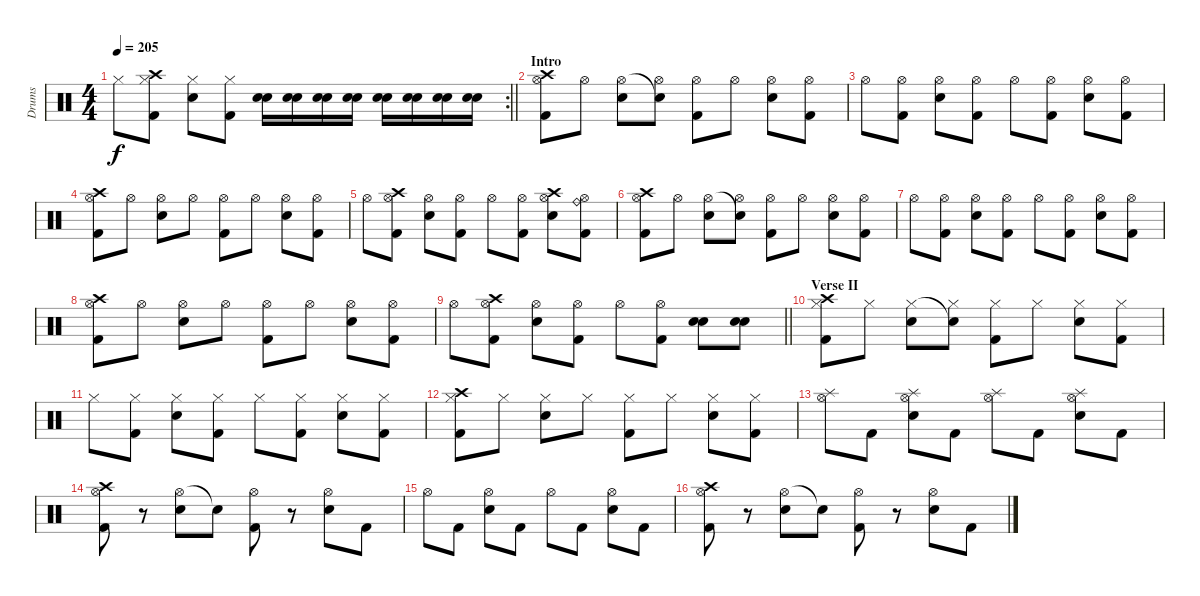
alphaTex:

\track ("Drums" "Drums") {instrument percussion}
\staff {score}
\articulation defaults
\rc 2
\ts (4 4)
\tempo 205
\clef neutral
\barLineRight lightlight
\ks c "Hi-Hat (closed)".8{dy f}
("Crash high (hit)" "Hi-Hat (closed)" "Kick (hit) 2").8 ("Hi-Hat (closed)" "Electric Snare (hit)").8 ("Hi-Hat (closed)" "Kick (hit) 2").8 ("Electric Snare (hit)" "Electric Snare (hit)").16 ("Electric Snare (hit)" "Electric Snare (hit)").16 ("Electric Snare (hit)" "Electric Snare (hit)").16 ("Electric Snare (hit)" "Electric Snare (hit)").16 ("Electric Snare (hit)" "Electric Snare (hit)").16 ("Electric Snare (hit)" "Electric Snare (hit)").16 ("Electric Snare (hit)" "Electric Snare (hit)").16 ("Electric Snare (hit)" "Electric Snare (hit)").16 |
\section ("" "Intro")
("Crash high (hit)" "Hi-Hat (open)" "Kick (hit) 2").8 "Hi-Hat (open)".8 ("Hi-Hat (open)" "Electric Snare (hit)").8 ("Snare (hit)"{t} "Hi-Hat (open)").8 ("Hi-Hat (open)" "Kick (hit) 2").8 "Hi-Hat (open)".8 ("Hi-Hat (open)" "Electric Snare (hit)").8 ("Hi-Hat (open)" "Kick (hit) 2").8 |
"Hi-Hat (open)".8 ("Hi-Hat (open)" "Kick (hit) 2").8 ("Hi-Hat (open)" "Electric Snare (hit)").8 ("Hi-Hat (open)" "Kick (hit) 2").8 "Hi-Hat (open)".8 ("Hi-Hat (open)" "Kick (hit) 2").8 ("Hi-Hat (open)" "Electric Snare (hit)").8 ("Hi-Hat (open)" "Kick (hit) 2").8 |
("Crash high (hit)" "Hi-Hat (open)" "Kick (hit) 2").8 "Hi-Hat (open)".8 ("Hi-Hat (open)" "Electric Snare (hit)").8 "Hi-Hat (open)".8 ("Hi-Hat (open)" "Kick (hit) 2").8 "Hi-Hat (open)".8 ("Hi-Hat (open)" "Electric Snare (hit)").8 ("Hi-Hat (open)" "Kick (hit) 2").8 |
"Hi-Hat (open)".8 ("Crash high (hit)" "Hi-Hat (open)" "Kick (hit) 2").8 ("Hi-Hat (open)" "Electric Snare (hit)").8 ("Hi-Hat (open)" "Kick (hit) 2").8 "Hi-Hat (open)".8 ("Hi-Hat (open)" "Kick (hit) 2").8 ("Crash high (hit)" "Hi-Hat (open)" "Electric Snare (hit)").8 ("Ride (bell)" "Hi-Hat (open)" "Kick (hit) 2").8 |
("Crash high (hit)" "Hi-Hat (open)" "Kick (hit) 2").8 "Hi-Hat (open)".8 ("Hi-Hat (open)" "Electric Snare (hit)").8 ("Snare (hit)"{t} "Hi-Hat (open)").8 ("Hi-Hat (open)" "Kick (hit) 2").8 "Hi-Hat (open)".8 ("Hi-Hat (open)" "Electric Snare (hit)").8 ("Hi-Hat (open)" "Kick (hit) 2").8 |
"Hi-Hat (open)".8 ("Hi-Hat (open)" "Kick (hit) 2").8 ("Hi-Hat (open)" "Electric Snare (hit)").8 ("Hi-Hat (open)" "Kick (hit) 2").8 "Hi-Hat (open)".8 ("Hi-Hat (open)" "Kick (hit) 2").8 ("Hi-Hat (open)" "Electric Snare (hit)").8 ("Hi-Hat (open)" "Kick (hit) 2").8 |
("Crash high (hit)" "Hi-Hat (open)" "Kick (hit) 2").8 "Hi-Hat (open)".8 ("Hi-Hat (open)" "Electric Snare (hit)").8 "Hi-Hat (open)".8 ("Hi-Hat (open)" "Kick (hit) 2").8 "Hi-Hat (open)".8 ("Hi-Hat (open)" "Electric Snare (hit)").8 ("Hi-Hat (open)" "Kick (hit) 2").8 |
\barLineRight lightlight "Hi-Hat (open)".8
("Crash high (hit)" "Hi-Hat (open)" "Kick (hit) 2").8 ("Hi-Hat (open)" "Electric Snare (hit)").8 ("Hi-Hat (open)" "Kick (hit) 2").8 "Hi-Hat (open)".8 ("Hi-Hat (open)" "Kick (hit) 2").8 ("Electric Snare (hit)" "Electric Snare (hit)").8 ("Electric Snare (hit)" "Electric Snare (hit)").8 |
\section ("" "Verse II")
("Crash high (hit)" "Hi-Hat (closed)" "Kick (hit) 2").8 "Hi-Hat (closed)".8 ("Hi-Hat (closed)" "Electric Snare (hit)").8 ("Snare (hit)"{t} "Hi-Hat (closed)").8 ("Hi-Hat (closed)" "Kick (hit) 2").8 "Hi-Hat (closed)".8 ("Hi-Hat (closed)" "Electric Snare (hit)").8 ("Hi-Hat (closed)" "Kick (hit) 2").8 |
"Hi-Hat (closed)".8 ("Hi-Hat (closed)" "Kick (hit) 2").8 ("Hi-Hat (closed)" "Electric Snare (hit)").8 ("Hi-Hat (closed)" "Kick (hit) 2").8 "Hi-Hat (closed)".8 ("Hi-Hat (closed)" "Kick (hit) 2").8 ("Hi-Hat (closed)" "Electric Snare (hit)").8 ("Hi-Hat (closed)" "Kick (hit) 2").8 |
("Crash high (hit)" "Hi-Hat (closed)" "Kick (hit) 2").8 "Hi-Hat (closed)".8 ("Hi-Hat (closed)" "Electric Snare (hit)").8 "Hi-Hat (closed)".8 ("Hi-Hat (closed)" "Kick (hit) 2").8 "Hi-Hat (closed)".8 ("Hi-Hat (closed)" "Electric Snare (hit)").8 ("Hi-Hat (closed)" "Kick (hit) 2").8 |
("Splash (hit)" "Hi-Hat (open)").8 "Kick (hit) 2".8 ("Splash (hit)" "Hi-Hat (open)" "Electric Snare (hit)").8 "Kick (hit) 2".8 ("Splash (hit)" "Hi-Hat (open)").8 "Kick (hit) 2".8 ("Splash (hit)" "Hi-Hat (open)" "Electric Snare (hit)").8 "Kick (hit) 2".8 |
("Crash high (hit)" "Hi-Hat (open)" "Kick (hit) 2").8 r.8 ("Hi-Hat (open)" "Electric Snare (hit)").8 "Snare (hit)"{t}.8 ("Hi-Hat (open)" "Kick (hit) 2").8 r.8 ("Hi-Hat (open)" "Electric Snare (hit)").8 "Kick (hit) 2".8 |
"Hi-Hat (open)".8 "Kick (hit) 2".8 ("Hi-Hat (open)" "Electric Snare (hit)").8 "Kick (hit) 2".8 "Hi-Hat (open)".8 "Kick (hit) 2".8 ("Hi-Hat (open)" "Electric Snare (hit)").8 "Kick (hit) 2".8 |
("Crash high (hit)" "Hi-Hat (open)" "Kick (hit) 2").8 r.8 ("Hi-Hat (open)" "Electric Snare (hit)").8 "Snare (hit)"{t}.8 ("Hi-Hat (open)" "Kick (hit) 2").8 r.8 ("Hi-Hat (open)" "Electric Snare (hit)").8 "Kick (hit) 2".8
